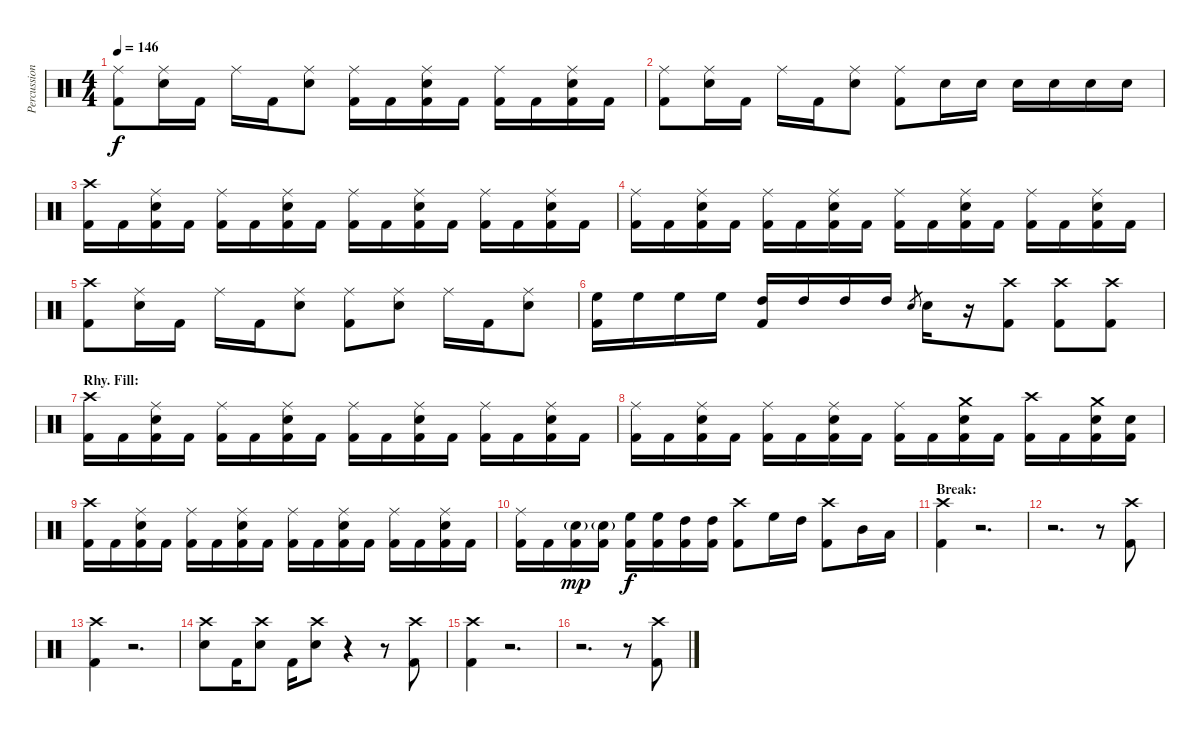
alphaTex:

\track ("Percussion" "Percussion") {instrument percussion}
\staff {score}
\articulation defaults
\ts (4 4)
\tempo 146
\clef neutral
\ks c
("Ride (middle)" "Kick (hit) 2").8{dy f} ("Ride (middle)" "Snare (hit) 2").16 "Kick (hit) 2".16 "Ride (middle)".16 "Kick (hit) 2".16 ("Ride (middle)" "Snare (hit) 2").8 ("Ride (middle)" "Kick (hit) 2").16 "Kick (hit) 2".16 ("Ride (middle)" "Snare (hit) 2" "Kick (hit) 2").16 "Kick (hit) 2".16 ("Ride (middle)" "Kick (hit) 2").16 "Kick (hit) 2".16 ("Ride (middle)" "Snare (hit) 2" "Kick (hit) 2").16 "Kick (hit) 2".16 |
("Ride (middle)" "Kick (hit) 2").8 ("Ride (middle)" "Snare (hit) 2").16 "Kick (hit) 2".16 "Ride (middle)".16 "Kick (hit) 2".16 ("Ride (middle)" "Snare (hit) 2").8 ("Ride (middle)" "Kick (hit) 2").8 "Snare (hit) 2".16 "Snare (hit) 2".16 "Snare (hit) 2".16 "Snare (hit) 2".16 "Snare (hit) 2".16 "Snare (hit) 2".16 |
("Crash high (hit)" "Kick (hit) 2").16 "Kick (hit) 2".16 ("Ride (middle)" "Snare (hit) 2" "Kick (hit) 2").16 "Kick (hit) 2".16 ("Ride (middle)" "Kick (hit) 2").16 "Kick (hit) 2".16 ("Ride (middle)" "Snare (hit) 2" "Kick (hit) 2").16 "Kick (hit) 2".16 ("Ride (middle)" "Kick (hit) 2").16 "Kick (hit) 2".16 ("Ride (middle)" "Snare (hit) 2" "Kick (hit) 2").16 "Kick (hit) 2".16 ("Ride (middle)" "Kick (hit) 2").16 "Kick (hit) 2".16 ("Ride (middle)" "Snare (hit) 2" "Kick (hit) 2").16 "Kick (hit) 2".16 |
("Ride (middle)" "Kick (hit) 2").16 "Kick (hit) 2".16 ("Ride (middle)" "Snare (hit) 2" "Kick (hit) 2").16 "Kick (hit) 2".16 ("Ride (middle)" "Kick (hit) 2").16 "Kick (hit) 2".16 ("Ride (middle)" "Snare (hit) 2" "Kick (hit) 2").16 "Kick (hit) 2".16 ("Ride (middle)" "Kick (hit) 2").16 "Kick (hit) 2".16 ("Ride (middle)" "Snare (hit) 2" "Kick (hit) 2").16 "Kick (hit) 2".16 ("Ride (middle)" "Kick (hit) 2").16 "Kick (hit) 2".16 ("Ride (middle)" "Snare (hit) 2" "Kick (hit) 2").16 "Kick (hit) 2".16 |
("Crash high (hit)" "Kick (hit) 2").8 ("Ride (middle)" "Snare (hit) 2").16 "Kick (hit) 2".16 "Ride (middle)".16 "Kick (hit) 2".16 ("Ride (middle)" "Snare (hit) 2").8 ("Ride (middle)" "Kick (hit) 2").8 ("Ride (middle)" "Snare (hit) 2").8 "Ride (middle)".16 "Kick (hit) 2".16 ("Ride (middle)" "Snare (hit) 2").8 |
("High Floor Tom (hit)" "Kick (hit) 2").16 "High Floor Tom (hit)".16 "High Floor Tom (hit)".16 "High Floor Tom (hit)".16 ("High Tom (hit)" "Kick (hit) 2").16 "High Tom (hit)".16 "High Tom (hit)".16 "High Tom (hit)".16 "Snare (hit) 2".8{gr} "Snare (hit) 2".16 r.16 ("Crash high (hit)" "Kick (hit) 2").8 ("Crash high (hit)" "Kick (hit) 2").8 ("Crash high (hit)" "Kick (hit) 2").8 |
\section ("" "Rhy. Fill:")
("Crash high (hit)" "Kick (hit) 2").16 "Kick (hit) 2".16 ("Ride (middle)" "Snare (hit) 2" "Kick (hit) 2").16 "Kick (hit) 2".16 ("Ride (middle)" "Kick (hit) 2").16 "Kick (hit) 2".16 ("Ride (middle)" "Snare (hit) 2" "Kick (hit) 2").16 "Kick (hit) 2".16 ("Ride (middle)" "Kick (hit) 2").16 "Kick (hit) 2".16 ("Ride (middle)" "Snare (hit) 2" "Kick (hit) 2").16 "Kick (hit) 2".16 ("Ride (middle)" "Kick (hit) 2").16 "Kick (hit) 2".16 ("Ride (middle)" "Snare (hit) 2" "Kick (hit) 2").16 "Kick (hit) 2".16 |
("Ride (middle)" "Kick (hit) 2").16 "Kick (hit) 2".16 ("Ride (middle)" "Snare (hit) 2" "Kick (hit) 2").16 "Kick (hit) 2".16 ("Ride (middle)" "Kick (hit) 2").16 "Kick (hit) 2".16 ("Ride (middle)" "Snare (hit) 2" "Kick (hit) 2").16 "Kick (hit) 2".16 ("Ride (middle)" "Kick (hit) 2").16 "Kick (hit) 2".16 ("Crash medium (hit)" "Snare (hit) 2" "Kick (hit) 2").16 "Kick (hit) 2".16 ("Crash high (hit)" "Kick (hit) 2").16 "Kick (hit) 2".16 ("Crash medium (hit)" "Snare (hit) 2" "Kick (hit) 2").16 ("Snare (hit) 2" "Kick (hit) 2").16 |
("Crash high (hit)" "Kick (hit) 2").16 "Kick (hit) 2".16 ("Ride (middle)" "Snare (hit) 2" "Kick (hit) 2").16 "Kick (hit) 2".16 ("Ride (middle)" "Kick (hit) 2").16 "Kick (hit) 2".16 ("Ride (middle)" "Snare (hit) 2" "Kick (hit) 2").16 "Kick (hit) 2".16 ("Ride (middle)" "Kick (hit) 2").16 "Kick (hit) 2".16 ("Ride (middle)" "Snare (hit) 2" "Kick (hit) 2").16 "Kick (hit) 2".16 ("Ride (middle)" "Kick (hit) 2").16 "Kick (hit) 2".16 ("Ride (middle)" "Snare (hit) 2" "Kick (hit) 2").16 "Kick (hit) 2".16 |
("Ride (middle)" "Kick (hit) 2").16 "Kick (hit) 2".16 ("Snare (hit) 2"{g} "Kick (hit) 2").16{dy mp} ("Snare (hit) 2"{g} "Kick (hit) 2").16 ("High Floor Tom (hit)" "Kick (hit) 2").16{dy f} ("High Floor Tom (hit)" "Kick (hit) 2").16 ("High Tom (hit)" "Kick (hit) 2").16 ("High Tom (hit)" "Kick (hit) 2").16 ("Crash high (hit)" "Kick (hit) 2").8 "High Floor Tom (hit)".16 "High Tom (hit)".16 ("Crash high (hit)" "Kick (hit) 2").8 "Mid Tom (hit)".16 "Low Tom (hit)".16 |
\section ("" "Break:")
("Crash high (hit)" "Kick (hit) 2").4 r.2{d} |
r.2{d} r.8 ("Crash high (hit)" "Kick (hit) 2").8 |
("Crash high (hit)" "Kick (hit) 2").4 r.2{d} |
("Crash high (hit)" "Snare (hit) 2").8 "Kick (hit) 2".16 ("Crash high (hit)" "Snare (hit) 2").8 "Kick (hit) 2".16 ("Crash high (hit)" "Snare (hit) 2").8 r.4 r.8 ("Crash high (hit)" "Kick (hit) 2").8 |
("Crash high (hit)" "Kick (hit) 2").4 r.2{d} |
r.2{d} r.8 ("Crash high (hit)" "Kick (hit) 2").8
